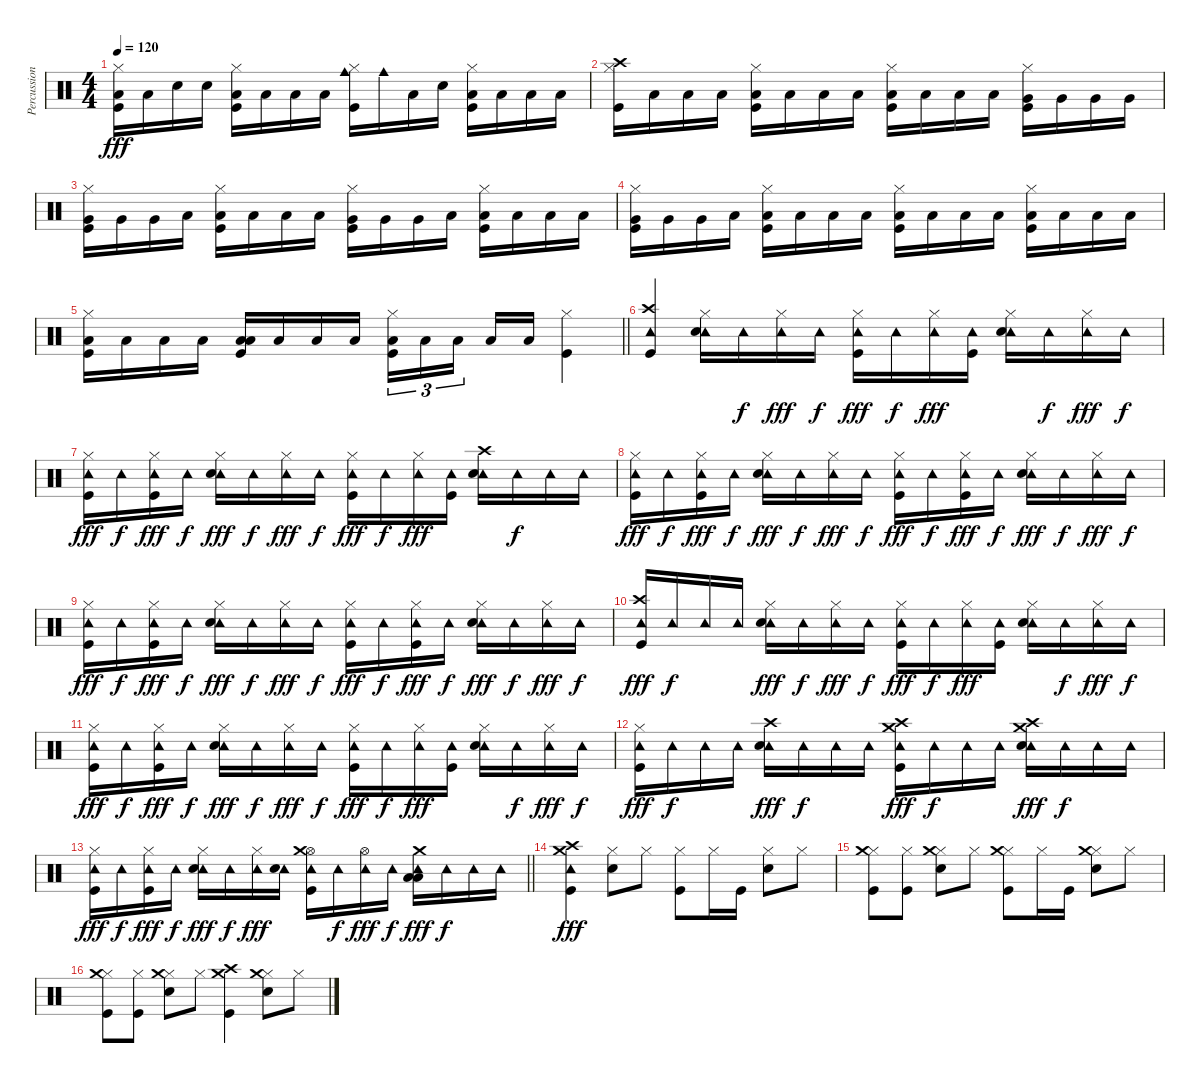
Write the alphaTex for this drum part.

\track ("Percussioni" "Percussion") {instrument percussion}
\staff {score}
\articulation defaults
\ts (4 4)
\tempo 120
\clef neutral
\ks c
("Hi-Hat (closed)" "Low Floor Tom (hit)" "Kick (hit)").16{dy fff} "Low Floor Tom (hit)".16 "Snare (hit) 2".16 "Snare (hit) 2".16 ("Hi-Hat (closed)" "Low Floor Tom (hit)" "Kick (hit)").16 "Low Tom (hit)".16 "Low Floor Tom (hit)".16 "Low Floor Tom (hit)".16 ("Hi-Hat (closed)" "Cowbell medium (hit)" "Kick (hit)").16 "Cowbell medium (hit)".16 "Low Floor Tom (hit)".16 "Snare (hit) 2".16 ("Hi-Hat (closed)" "Low Floor Tom (hit)" "Kick (hit)").16 "Low Floor Tom (hit)".16 "Low Tom (hit)".16 "Low Tom (hit)".16 |
("Hi-Hat (closed)" "Crash high (hit)" "Kick (hit)").16 "Low Tom (hit)".16 "Low Tom (hit)".16 "Low Tom (hit)".16 ("Hi-Hat (closed)" "Low Tom (hit)" "Kick (hit)").16 "Low Tom (hit)".16 "Low Tom (hit)".16 "Low Tom (hit)".16 ("Hi-Hat (closed)" "Low Tom (hit)" "Kick (hit)").16 "Low Tom (hit)".16 "Low Tom (hit)".16 "Low Tom (hit)".16 ("Hi-Hat (closed)" "Very Low Tom (hit)" "Kick (hit)").16 "Very Low Tom (hit)".16 "Very Low Tom (hit)".16 "Very Low Tom (hit)".16 |
("Hi-Hat (closed)" "Very Low Tom (hit)" "Kick (hit)").16 "Very Low Tom (hit)".16 "Very Low Tom (hit)".16 "Low Tom (hit)".16 ("Hi-Hat (closed)" "Low Tom (hit)" "Kick (hit)").16 "Low Tom (hit)".16 "Low Tom (hit)".16 "Low Tom (hit)".16 ("Hi-Hat (closed)" "Very Low Tom (hit)" "Kick (hit)").16 "Very Low Tom (hit)".16 "Very Low Tom (hit)".16 "Low Tom (hit)".16 ("Hi-Hat (closed)" "Low Tom (hit)" "Kick (hit)").16 "Low Tom (hit)".16 "Low Tom (hit)".16 "Low Tom (hit)".16 |
("Hi-Hat (closed)" "Very Low Tom (hit)" "Kick (hit)").16 "Very Low Tom (hit)".16 "Very Low Tom (hit)".16 "Low Tom (hit)".16 ("Hi-Hat (closed)" "Low Tom (hit)" "Kick (hit)").16 "Low Tom (hit)".16 "Low Tom (hit)".16 "Low Tom (hit)".16 ("Hi-Hat (closed)" "Low Tom (hit)" "Kick (hit)").16 "Low Tom (hit)".16 "Low Tom (hit)".16 "Low Floor Tom (hit)".16 ("Hi-Hat (closed)" "Low Floor Tom (hit)" "Kick (hit)").16 "Low Floor Tom (hit)".16 "Low Floor Tom (hit)".16 "Low Floor Tom (hit)".16 |
\barLineRight lightlight
("Hi-Hat (closed)" "Low Floor Tom (hit)" "Kick (hit)").16 "Low Floor Tom (hit)".16 "Low Floor Tom (hit)".16 "Low Floor Tom (hit)".16 ("Low Tom (hit)" "Low Floor Tom (hit)" "Kick (hit)").16 "Low Floor Tom (hit)".16 "Low Floor Tom (hit)".16 "Low Floor Tom (hit)".16 ("Hi-Hat (closed)" "Low Floor Tom (hit)" "Kick (hit)").16{tu (3 2)} "Low Floor Tom (hit)".16{tu (3 2)} "Low Floor Tom (hit)".16{tu (3 2) beam splitsecondary} "Low Floor Tom (hit)".16 "Low Floor Tom (hit)".16 ("Hi-Hat (closed)" "Kick (hit)").4 |
("Crash high (hit)" "Tambourine (hit)" "Kick (hit)").4 ("Hi-Hat (closed)" "Tambourine (hit)" "Snare (hit) 2").16 "Tambourine (hit)".16{dy f} ("Hi-Hat (closed)" "Tambourine (hit)").16{dy fff} "Tambourine (hit)".16{dy f} ("Hi-Hat (closed)" "Tambourine (hit)" "Kick (hit)").16{dy fff} "Tambourine (hit)".16{dy f} ("Hi-Hat (closed)" "Tambourine (hit)").16{dy fff} ("Tambourine (hit)" "Kick (hit)").16 ("Hi-Hat (closed)" "Tambourine (hit)" "Snare (hit) 2").16 "Tambourine (hit)".16{dy f} ("Hi-Hat (closed)" "Tambourine (hit)").16{dy fff} "Tambourine (hit)".16{dy f} |
("Hi-Hat (closed)" "Tambourine (hit)" "Kick (hit)").16{dy fff} "Tambourine (hit)".16{dy f} ("Hi-Hat (closed)" "Tambourine (hit)" "Kick (hit)").16{dy fff} "Tambourine (hit)".16{dy f} ("Hi-Hat (closed)" "Tambourine (hit)" "Snare (hit) 2").16{dy fff} "Tambourine (hit)".16{dy f} ("Hi-Hat (closed)" "Tambourine (hit)").16{dy fff} "Tambourine (hit)".16{dy f} ("Hi-Hat (closed)" "Tambourine (hit)" "Kick (hit)").16{dy fff} "Tambourine (hit)".16{dy f} ("Hi-Hat (closed)" "Tambourine (hit)").16{dy fff} ("Tambourine (hit)" "Kick (hit)").16 ("Crash high (hit)" "Tambourine (hit)" "Snare (hit) 2").16 "Tambourine (hit)".16{dy f} "Tambourine (hit)".16 "Tambourine (hit)".16 |
("Hi-Hat (closed)" "Tambourine (hit)" "Kick (hit)").16{dy fff} "Tambourine (hit)".16{dy f} ("Hi-Hat (closed)" "Tambourine (hit)" "Kick (hit)").16{dy fff} "Tambourine (hit)".16{dy f} ("Hi-Hat (closed)" "Tambourine (hit)" "Snare (hit) 2").16{dy fff} "Tambourine (hit)".16{dy f} ("Hi-Hat (closed)" "Tambourine (hit)").16{dy fff} "Tambourine (hit)".16{dy f} ("Hi-Hat (closed)" "Tambourine (hit)" "Kick (hit)").16{dy fff} "Tambourine (hit)".16{dy f} ("Hi-Hat (closed)" "Tambourine (hit)" "Kick (hit)").16{dy fff} "Tambourine (hit)".16{dy f} ("Hi-Hat (closed)" "Tambourine (hit)" "Snare (hit) 2").16{dy fff} "Tambourine (hit)".16{dy f} ("Hi-Hat (closed)" "Tambourine (hit)").16{dy fff} "Tambourine (hit)".16{dy f} |
("Hi-Hat (closed)" "Tambourine (hit)" "Kick (hit)").16{dy fff} "Tambourine (hit)".16{dy f} ("Hi-Hat (closed)" "Tambourine (hit)" "Kick (hit)").16{dy fff} "Tambourine (hit)".16{dy f} ("Hi-Hat (closed)" "Tambourine (hit)" "Snare (hit) 2").16{dy fff} "Tambourine (hit)".16{dy f} ("Hi-Hat (closed)" "Tambourine (hit)").16{dy fff} "Tambourine (hit)".16{dy f} ("Hi-Hat (closed)" "Tambourine (hit)" "Kick (hit)").16{dy fff} "Tambourine (hit)".16{dy f} ("Hi-Hat (closed)" "Tambourine (hit)" "Kick (hit)").16{dy fff} "Tambourine (hit)".16{dy f} ("Hi-Hat (closed)" "Tambourine (hit)" "Snare (hit) 2").16{dy fff} "Tambourine (hit)".16{dy f} ("Hi-Hat (closed)" "Tambourine (hit)").16{dy fff} "Tambourine (hit)".16{dy f} |
("Crash high (hit)" "Tambourine (hit)" "Kick (hit)").16{dy fff} "Tambourine (hit)".16{dy f} "Tambourine (hit)".16 "Tambourine (hit)".16 ("Hi-Hat (closed)" "Tambourine (hit)" "Snare (hit) 2").16{dy fff} "Tambourine (hit)".16{dy f} ("Hi-Hat (closed)" "Tambourine (hit)").16{dy fff} "Tambourine (hit)".16{dy f} ("Hi-Hat (closed)" "Tambourine (hit)" "Kick (hit)").16{dy fff} "Tambourine (hit)".16{dy f} ("Hi-Hat (closed)" "Tambourine (hit)").16{dy fff} ("Tambourine (hit)" "Kick (hit)").16 ("Hi-Hat (closed)" "Tambourine (hit)" "Snare (hit) 2").16 "Tambourine (hit)".16{dy f} ("Hi-Hat (closed)" "Tambourine (hit)").16{dy fff} "Tambourine (hit)".16{dy f} |
("Hi-Hat (closed)" "Tambourine (hit)" "Kick (hit)").16{dy fff} "Tambourine (hit)".16{dy f} ("Hi-Hat (closed)" "Tambourine (hit)" "Kick (hit)").16{dy fff} "Tambourine (hit)".16{dy f} ("Hi-Hat (closed)" "Tambourine (hit)" "Snare (hit) 2").16{dy fff} "Tambourine (hit)".16{dy f} ("Hi-Hat (closed)" "Tambourine (hit)").16{dy fff} "Tambourine (hit)".16{dy f} ("Hi-Hat (closed)" "Tambourine (hit)" "Kick (hit)").16{dy fff} "Tambourine (hit)".16{dy f} ("Hi-Hat (closed)" "Tambourine (hit)").16{dy fff} ("Tambourine (hit)" "Kick (hit)").16 ("Hi-Hat (closed)" "Tambourine (hit)" "Snare (hit) 2").16 "Tambourine (hit)".16{dy f} ("Hi-Hat (closed)" "Tambourine (hit)").16{dy fff} "Tambourine (hit)".16{dy f} |
("Hi-Hat (closed)" "Tambourine (hit)" "Kick (hit)").16{dy fff} "Tambourine (hit)".16{dy f} "Tambourine (hit)".16 "Tambourine (hit)".16 ("Crash high (hit)" "Tambourine (hit)" "Snare (hit) 2").16{dy fff} "Tambourine (hit)".16{dy f} "Tambourine (hit)".16 "Tambourine (hit)".16 ("Crash high (hit)" "Tambourine (hit)" "Crash medium (hit)" "Kick (hit)").16{dy fff} "Tambourine (hit)".16{dy f} "Tambourine (hit)".16 "Tambourine (hit)".16 ("Crash high (hit)" "Tambourine (hit)" "Crash medium (hit)" "Snare (hit) 2").16{dy fff} "Tambourine (hit)".16{dy f} "Tambourine (hit)".16 "Tambourine (hit)".16 |
\barLineRight lightlight
("Hi-Hat (closed)" "Tambourine (hit)" "Kick (hit)").16{dy fff} "Tambourine (hit)".16{dy f} ("Hi-Hat (closed)" "Tambourine (hit)" "Kick (hit)").16{dy fff} "Tambourine (hit)".16{dy f} ("Hi-Hat (closed)" "Tambourine (hit)" "Snare (hit) 2").16{dy fff} "Tambourine (hit)".16{dy f} ("Hi-Hat (closed)" "Tambourine (hit)").16{dy fff} ("Tambourine (hit)" "Snare (hit) 2").16 ("Hi-Hat (open)" "Tambourine (hit)" "Crash medium (hit)" "Kick (hit)").16 "Tambourine (hit)".16{dy f} ("Hi-Hat (open)" "Tambourine (hit)").16{dy fff} "Tambourine (hit)".16{dy f} ("Tambourine (hit)" "Crash medium (hit)" "Low Tom (hit)" "Low Floor Tom (hit)").16{dy fff} "Tambourine (hit)".16{dy f} "Tambourine (hit)".16 "Tambourine (hit)".16 |
("Crash high (hit)" "Tambourine (hit)" "Crash medium (hit)" "Kick (hit)").4{dy fff} ("Hi-Hat (closed)" "Snare (hit) 2").8 "Hi-Hat (closed)".8 ("Hi-Hat (closed)" "Kick (hit)").8 "Hi-Hat (closed)".16 "Kick (hit)".16 ("Hi-Hat (closed)" "Snare (hit) 2").8 "Hi-Hat (closed)".8 |
("Hi-Hat (closed)" "Crash medium (hit)" "Kick (hit)").8 ("Hi-Hat (closed)" "Kick (hit)").8 ("Hi-Hat (closed)" "Crash medium (hit)" "Snare (hit) 2").8 "Hi-Hat (closed)".8 ("Hi-Hat (closed)" "Crash medium (hit)" "Kick (hit)").8 "Hi-Hat (closed)".16 "Kick (hit)".16 ("Hi-Hat (closed)" "Crash medium (hit)" "Snare (hit) 2").8 "Hi-Hat (closed)".8 |
("Hi-Hat (closed)" "Crash medium (hit)" "Kick (hit)").8 ("Hi-Hat (closed)" "Kick (hit)").8 ("Hi-Hat (closed)" "Crash medium (hit)" "Snare (hit) 2").8 "Hi-Hat (closed)".8 ("Crash high (hit)" "Crash medium (hit)" "Kick (hit)").4 ("Hi-Hat (closed)" "Crash medium (hit)" "Snare (hit) 2").8 "Hi-Hat (closed)".8
